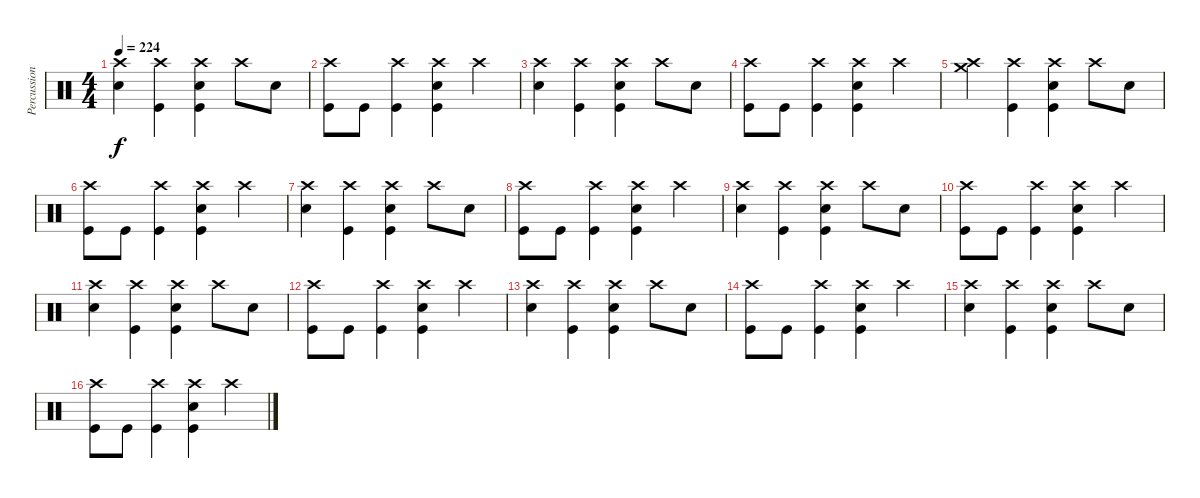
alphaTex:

\track ("Percussion" "Percussion") {instrument percussion}
\staff {score}
\articulation defaults
\ts (4 4)
\tempo 224
\clef neutral
\ks c
("Crash high (hit)" "Electric Snare (hit)").4{dy f} ("Crash high (hit)" "Kick (hit)").4 ("Crash high (hit)" "Electric Snare (hit)" "Kick (hit)").4 "Crash high (hit)".8 "Electric Snare (hit)".8 |
("Crash high (hit)" "Kick (hit)").8 "Kick (hit)".8 ("Crash high (hit)" "Kick (hit)").4 ("Crash high (hit)" "Electric Snare (hit)" "Kick (hit)").4 "Crash high (hit)".4 |
("Crash high (hit)" "Electric Snare (hit)").4 ("Crash high (hit)" "Kick (hit)").4 ("Crash high (hit)" "Electric Snare (hit)" "Kick (hit)").4 "Crash high (hit)".8 "Electric Snare (hit)".8 |
("Crash high (hit)" "Kick (hit)").8 "Kick (hit)".8 ("Crash high (hit)" "Kick (hit)").4 ("Crash high (hit)" "Electric Snare (hit)" "Kick (hit)").4 "Crash high (hit)".4 |
("Crash high (hit)" "Crash medium (hit)").4 ("Crash high (hit)" "Kick (hit)").4 ("Crash high (hit)" "Electric Snare (hit)" "Kick (hit)").4 "Crash high (hit)".8 "Electric Snare (hit)".8 |
("Crash high (hit)" "Kick (hit)").8 "Kick (hit)".8 ("Crash high (hit)" "Kick (hit)").4 ("Crash high (hit)" "Electric Snare (hit)" "Kick (hit)").4 "Crash high (hit)".4 |
("Crash high (hit)" "Electric Snare (hit)").4 ("Crash high (hit)" "Kick (hit)").4 ("Crash high (hit)" "Electric Snare (hit)" "Kick (hit)").4 "Crash high (hit)".8 "Electric Snare (hit)".8 |
("Crash high (hit)" "Kick (hit)").8 "Kick (hit)".8 ("Crash high (hit)" "Kick (hit)").4 ("Crash high (hit)" "Electric Snare (hit)" "Kick (hit)").4 "Crash high (hit)".4 |
("Crash high (hit)" "Electric Snare (hit)").4 ("Crash high (hit)" "Kick (hit)").4 ("Crash high (hit)" "Electric Snare (hit)" "Kick (hit)").4 "Crash high (hit)".8 "Electric Snare (hit)".8 |
("Crash high (hit)" "Kick (hit)").8 "Kick (hit)".8 ("Crash high (hit)" "Kick (hit)").4 ("Crash high (hit)" "Electric Snare (hit)" "Kick (hit)").4 "Crash high (hit)".4 |
("Crash high (hit)" "Electric Snare (hit)").4 ("Crash high (hit)" "Kick (hit)").4 ("Crash high (hit)" "Electric Snare (hit)" "Kick (hit)").4 "Crash high (hit)".8 "Electric Snare (hit)".8 |
("Crash high (hit)" "Kick (hit)").8 "Kick (hit)".8 ("Crash high (hit)" "Kick (hit)").4 ("Crash high (hit)" "Electric Snare (hit)" "Kick (hit)").4 "Crash high (hit)".4 |
("Crash high (hit)" "Electric Snare (hit)").4 ("Crash high (hit)" "Kick (hit)").4 ("Crash high (hit)" "Electric Snare (hit)" "Kick (hit)").4 "Crash high (hit)".8 "Electric Snare (hit)".8 |
("Crash high (hit)" "Kick (hit)").8 "Kick (hit)".8 ("Crash high (hit)" "Kick (hit)").4 ("Crash high (hit)" "Electric Snare (hit)" "Kick (hit)").4 "Crash high (hit)".4 |
("Crash high (hit)" "Electric Snare (hit)").4 ("Crash high (hit)" "Kick (hit)").4 ("Crash high (hit)" "Electric Snare (hit)" "Kick (hit)").4 "Crash high (hit)".8 "Electric Snare (hit)".8 |
("Crash high (hit)" "Kick (hit)").8 "Kick (hit)".8 ("Crash high (hit)" "Kick (hit)").4 ("Crash high (hit)" "Electric Snare (hit)" "Kick (hit)").4 "Crash high (hit)".4
